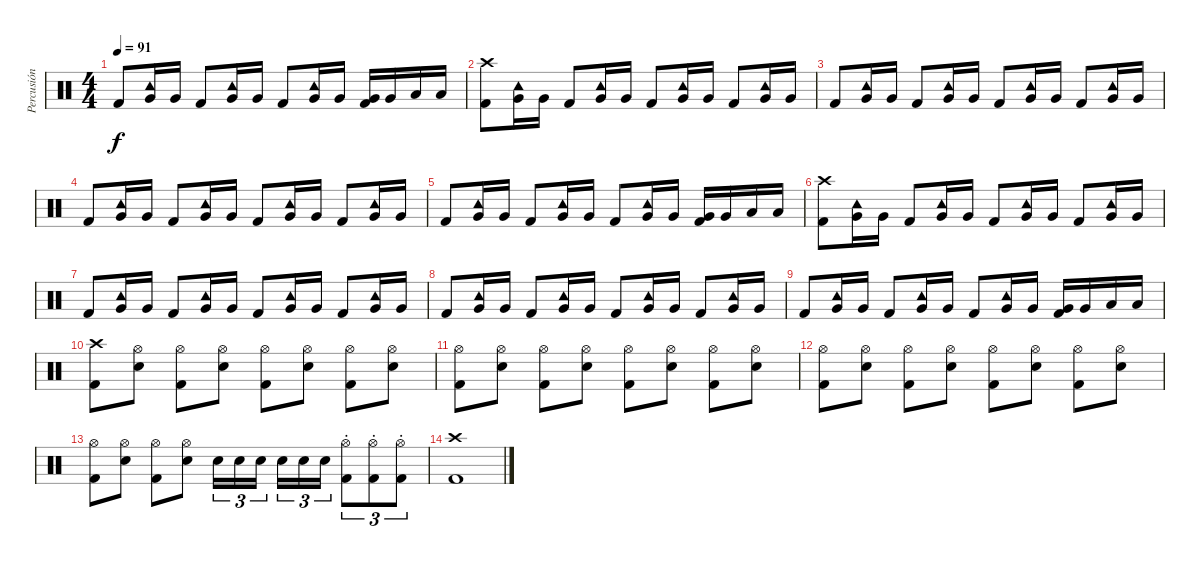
\track ("Percusión" "Percusión") {instrument percussion}
\staff {score}
\articulation defaults
\ts (4 4)
\tempo 91
\clef neutral
\ks c "Kick (hit) 2".8{dy f}
("Tambourine (hit)" "Very Low Tom (hit)").16 "Very Low Tom (hit)".16 "Kick (hit) 2".8 ("Tambourine (hit)" "Very Low Tom (hit)").16 "Very Low Tom (hit)".16 "Kick (hit) 2".8 ("Tambourine (hit)" "Very Low Tom (hit)").16 "Very Low Tom (hit)".16 ("Very Low Tom (hit)" "Kick (hit) 2").16 "Very Low Tom (hit)".16 "Low Floor Tom (hit)".16 "Low Floor Tom (hit)".16 |
("Crash high (hit)" "Kick (hit) 2").8 ("Tambourine (hit)" "Very Low Tom (hit)").16 "Very Low Tom (hit)".16 "Kick (hit) 2".8 ("Tambourine (hit)" "Very Low Tom (hit)").16 "Very Low Tom (hit)".16 "Kick (hit) 2".8 ("Tambourine (hit)" "Very Low Tom (hit)").16 "Very Low Tom (hit)".16 "Kick (hit) 2".8 ("Tambourine (hit)" "Very Low Tom (hit)").16 "Very Low Tom (hit)".16 |
"Kick (hit) 2".8 ("Tambourine (hit)" "Very Low Tom (hit)").16 "Very Low Tom (hit)".16 "Kick (hit) 2".8 ("Tambourine (hit)" "Very Low Tom (hit)").16 "Very Low Tom (hit)".16 "Kick (hit) 2".8 ("Tambourine (hit)" "Very Low Tom (hit)").16 "Very Low Tom (hit)".16 "Kick (hit) 2".8 ("Tambourine (hit)" "Very Low Tom (hit)").16 "Very Low Tom (hit)".16 |
"Kick (hit) 2".8 ("Tambourine (hit)" "Very Low Tom (hit)").16 "Very Low Tom (hit)".16 "Kick (hit) 2".8 ("Tambourine (hit)" "Very Low Tom (hit)").16 "Very Low Tom (hit)".16 "Kick (hit) 2".8 ("Tambourine (hit)" "Very Low Tom (hit)").16 "Very Low Tom (hit)".16 "Kick (hit) 2".8 ("Tambourine (hit)" "Very Low Tom (hit)").16 "Very Low Tom (hit)".16 |
"Kick (hit) 2".8 ("Tambourine (hit)" "Very Low Tom (hit)").16 "Very Low Tom (hit)".16 "Kick (hit) 2".8 ("Tambourine (hit)" "Very Low Tom (hit)").16 "Very Low Tom (hit)".16 "Kick (hit) 2".8 ("Tambourine (hit)" "Very Low Tom (hit)").16 "Very Low Tom (hit)".16 ("Very Low Tom (hit)" "Kick (hit) 2").16 "Very Low Tom (hit)".16 "Low Floor Tom (hit)".16 "Low Floor Tom (hit)".16 |
("Crash high (hit)" "Kick (hit) 2").8 ("Tambourine (hit)" "Very Low Tom (hit)").16 "Very Low Tom (hit)".16 "Kick (hit) 2".8 ("Tambourine (hit)" "Very Low Tom (hit)").16 "Very Low Tom (hit)".16 "Kick (hit) 2".8 ("Tambourine (hit)" "Very Low Tom (hit)").16 "Very Low Tom (hit)".16 "Kick (hit) 2".8 ("Tambourine (hit)" "Very Low Tom (hit)").16 "Very Low Tom (hit)".16 |
"Kick (hit) 2".8 ("Tambourine (hit)" "Very Low Tom (hit)").16 "Very Low Tom (hit)".16 "Kick (hit) 2".8 ("Tambourine (hit)" "Very Low Tom (hit)").16 "Very Low Tom (hit)".16 "Kick (hit) 2".8 ("Tambourine (hit)" "Very Low Tom (hit)").16 "Very Low Tom (hit)".16 "Kick (hit) 2".8 ("Tambourine (hit)" "Very Low Tom (hit)").16 "Very Low Tom (hit)".16 |
"Kick (hit) 2".8 ("Tambourine (hit)" "Very Low Tom (hit)").16 "Very Low Tom (hit)".16 "Kick (hit) 2".8 ("Tambourine (hit)" "Very Low Tom (hit)").16 "Very Low Tom (hit)".16 "Kick (hit) 2".8 ("Tambourine (hit)" "Very Low Tom (hit)").16 "Very Low Tom (hit)".16 "Kick (hit) 2".8 ("Tambourine (hit)" "Very Low Tom (hit)").16 "Very Low Tom (hit)".16 |
"Kick (hit) 2".8 ("Tambourine (hit)" "Very Low Tom (hit)").16 "Very Low Tom (hit)".16 "Kick (hit) 2".8 ("Tambourine (hit)" "Very Low Tom (hit)").16 "Very Low Tom (hit)".16 "Kick (hit) 2".8 ("Tambourine (hit)" "Very Low Tom (hit)").16 "Very Low Tom (hit)".16 ("Very Low Tom (hit)" "Kick (hit) 2").16 "Very Low Tom (hit)".16 "Low Floor Tom (hit)".16 "Low Floor Tom (hit)".16 |
("Crash high (hit)" "Kick (hit) 2").8 ("Hi-Hat (open)" "Electric Snare (hit)").8 ("Hi-Hat (open)" "Kick (hit) 2").8 ("Hi-Hat (open)" "Electric Snare (hit)").8 ("Hi-Hat (open)" "Kick (hit) 2").8 ("Hi-Hat (open)" "Electric Snare (hit)").8 ("Hi-Hat (open)" "Kick (hit) 2").8 ("Hi-Hat (open)" "Electric Snare (hit)").8 |
("Hi-Hat (open)" "Kick (hit) 2").8 ("Hi-Hat (open)" "Electric Snare (hit)").8 ("Hi-Hat (open)" "Kick (hit) 2").8 ("Hi-Hat (open)" "Electric Snare (hit)").8 ("Hi-Hat (open)" "Kick (hit) 2").8 ("Hi-Hat (open)" "Electric Snare (hit)").8 ("Hi-Hat (open)" "Kick (hit) 2").8 ("Hi-Hat (open)" "Electric Snare (hit)").8 |
("Hi-Hat (open)" "Kick (hit) 2").8 ("Hi-Hat (open)" "Electric Snare (hit)").8 ("Hi-Hat (open)" "Kick (hit) 2").8 ("Hi-Hat (open)" "Electric Snare (hit)").8 ("Hi-Hat (open)" "Kick (hit) 2").8 ("Hi-Hat (open)" "Electric Snare (hit)").8 ("Hi-Hat (open)" "Kick (hit) 2").8 ("Hi-Hat (open)" "Electric Snare (hit)").8 |
("Hi-Hat (open)" "Kick (hit) 2").8 ("Hi-Hat (open)" "Electric Snare (hit)").8 ("Hi-Hat (open)" "Kick (hit) 2").8 ("Hi-Hat (open)" "Electric Snare (hit)").8 "Electric Snare (hit)".16{tu (3 2)} "Electric Snare (hit)".16{tu (3 2)} "Electric Snare (hit)".16{tu (3 2) beam splitsecondary} "Electric Snare (hit)".16{tu (3 2)} "Electric Snare (hit)".16{tu (3 2)} "Electric Snare (hit)".16{tu (3 2)} ("Hi-Hat (open)"{st} "Kick (hit) 2"{st}).8{tu (3 2)} ("Hi-Hat (open)"{st} "Kick (hit) 2"{st}).8{tu (3 2)} ("Hi-Hat (open)"{st} "Kick (hit) 2"{st}).8{tu (3 2)} |
("Crash high (hit)" "Kick (hit) 2").1
